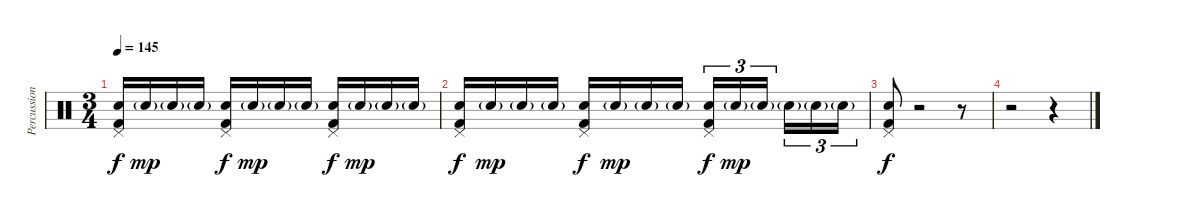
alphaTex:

\track ("Percussion" "Percussion") {instrument percussion}
\staff {score}
\articulation defaults
\ts (3 4)
\tempo 145
\clef neutral
\ks c
("Pedal Hi-Hat (hit)" "Electric Snare (hit)" "Kick (hit) 2").16{dy f} "Electric Snare (hit)"{g}.16{dy mp} "Electric Snare (hit)"{g}.16 "Electric Snare (hit)"{g}.16 ("Pedal Hi-Hat (hit)" "Electric Snare (hit)" "Kick (hit) 2").16{dy f} "Electric Snare (hit)"{g}.16{dy mp} "Electric Snare (hit)"{g}.16 "Electric Snare (hit)"{g}.16 ("Pedal Hi-Hat (hit)" "Electric Snare (hit)" "Kick (hit) 2").16{dy f} "Electric Snare (hit)"{g}.16{dy mp} "Electric Snare (hit)"{g}.16 "Electric Snare (hit)"{g}.16 |
("Pedal Hi-Hat (hit)" "Electric Snare (hit)" "Kick (hit) 2").16{dy f} "Electric Snare (hit)"{g}.16{dy mp} "Electric Snare (hit)"{g}.16 "Electric Snare (hit)"{g}.16 ("Pedal Hi-Hat (hit)" "Electric Snare (hit)" "Kick (hit) 2").16{dy f} "Electric Snare (hit)"{g}.16{dy mp} "Electric Snare (hit)"{g}.16 "Electric Snare (hit)"{g}.16 ("Pedal Hi-Hat (hit)" "Electric Snare (hit)" "Kick (hit) 2").16{tu (3 2) dy f} "Electric Snare (hit)"{g}.16{tu (3 2) dy mp} "Electric Snare (hit)"{g}.16{tu (3 2)} "Electric Snare (hit)"{g}.16{tu (3 2)} "Electric Snare (hit)"{g}.16{tu (3 2)} "Electric Snare (hit)"{g}.16{tu (3 2)} |
("Pedal Hi-Hat (hit)" "Electric Snare (hit)" "Kick (hit) 2").8{dy f} r.2 r.8 |
r.2 r.4
